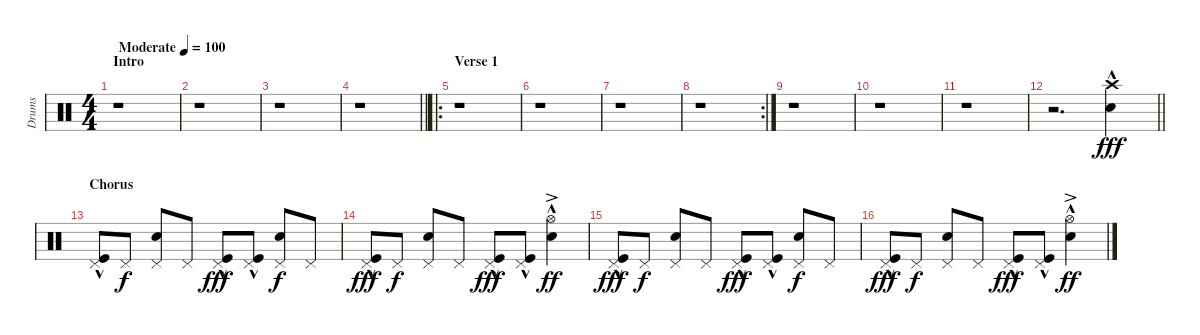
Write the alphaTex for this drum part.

\track ("Drums" "Drums") {instrument percussion}
\staff {score}
\articulation defaults
\ts (4 4)
\section ("" "Intro")
\tempo (100 "Moderate")
\clef neutral
\ks c
r.1{dy fff} |
r.1 |
r.1 |
\barLineRight lightlight
r.1 |
\ro
\section ("" "Verse 1")
r.1 |
r.1 |
r.1 |
\rc 2
r.1 |
r.1 |
r.1 |
r.1 |
\barLineRight lightlight
r.2{d} ("Crash high (hit)"{hac} "Snare (hit) 2"{hac}).4 |
\section ("" "Chorus")
("Pedal Hi-Hat (hit)" "Kick (hit)"{hac}).8 "Pedal Hi-Hat (hit)".8{dy f} ("Pedal Hi-Hat (hit)" "Snare (hit) 2").8 "Pedal Hi-Hat (hit)".8 ("Pedal Hi-Hat (hit)" "Kick (hit)"{hac}).8{dy fff} ("Pedal Hi-Hat (hit)" "Kick (hit)"{hac}).8 ("Pedal Hi-Hat (hit)" "Snare (hit) 2").8{dy f} "Pedal Hi-Hat (hit)".8 |
("Pedal Hi-Hat (hit)" "Kick (hit)"{hac}).8{dy fff} "Pedal Hi-Hat (hit)".8{dy f} ("Pedal Hi-Hat (hit)" "Snare (hit) 2").8 "Pedal Hi-Hat (hit)".8 ("Pedal Hi-Hat (hit)" "Kick (hit)"{hac}).8{dy fff} ("Pedal Hi-Hat (hit)" "Kick (hit)"{hac}).8 ("Hi-Hat (open)"{hac} "Snare (hit) 2"{ac}).4{dy ff} |
("Pedal Hi-Hat (hit)" "Kick (hit)"{hac}).8{dy fff} "Pedal Hi-Hat (hit)".8{dy f} ("Pedal Hi-Hat (hit)" "Snare (hit) 2").8 "Pedal Hi-Hat (hit)".8 ("Pedal Hi-Hat (hit)" "Kick (hit)"{hac}).8{dy fff} ("Pedal Hi-Hat (hit)" "Kick (hit)"{hac}).8 ("Pedal Hi-Hat (hit)" "Snare (hit) 2").8{dy f} "Pedal Hi-Hat (hit)".8 |
("Pedal Hi-Hat (hit)" "Kick (hit)"{hac}).8{dy fff} "Pedal Hi-Hat (hit)".8{dy f} ("Pedal Hi-Hat (hit)" "Snare (hit) 2").8 "Pedal Hi-Hat (hit)".8 ("Pedal Hi-Hat (hit)" "Kick (hit)"{hac}).8{dy fff} ("Pedal Hi-Hat (hit)" "Kick (hit)"{hac}).8 ("Hi-Hat (open)"{hac} "Snare (hit) 2"{ac}).4{dy ff}
